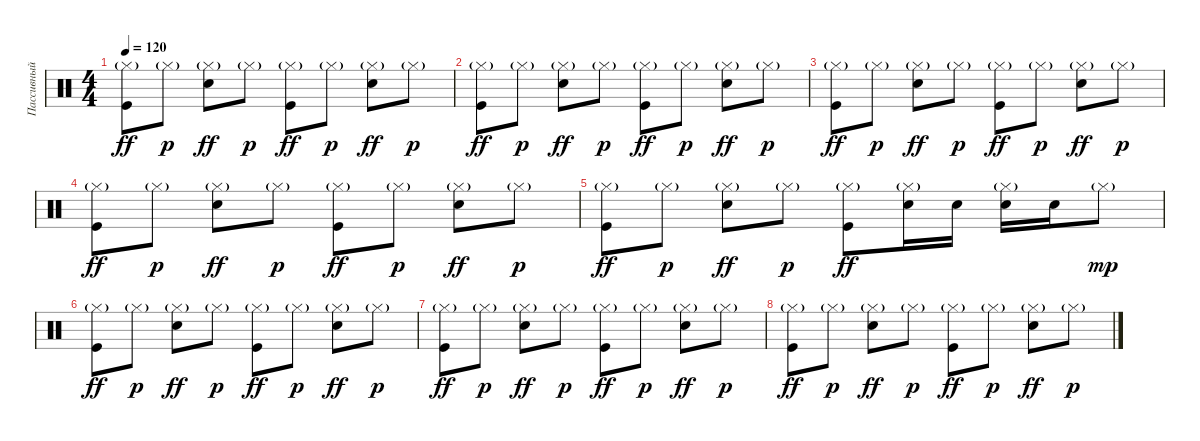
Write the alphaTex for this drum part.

\track ("Пассивный ударник" "Пассивный ") {instrument percussion}
\staff {score}
\articulation defaults
\ts (4 4)
\tempo 120
\clef neutral
\ks c
("Hi-Hat (closed)"{g} "Kick (hit)").8{dy ff} "Hi-Hat (closed)"{g}.8{dy p} ("Hi-Hat (closed)"{g} "Electric Snare (hit)").8{dy ff} "Hi-Hat (closed)"{g}.8{dy p} ("Hi-Hat (closed)"{g} "Kick (hit)").8{dy ff} "Hi-Hat (closed)"{g}.8{dy p} ("Hi-Hat (closed)"{g} "Electric Snare (hit)").8{dy ff} "Hi-Hat (closed)"{g}.8{dy p} |
("Hi-Hat (closed)"{g} "Kick (hit)").8{dy ff} "Hi-Hat (closed)"{g}.8{dy p} ("Hi-Hat (closed)"{g} "Electric Snare (hit)").8{dy ff} "Hi-Hat (closed)"{g}.8{dy p} ("Hi-Hat (closed)"{g} "Kick (hit)").8{dy ff} "Hi-Hat (closed)"{g}.8{dy p} ("Hi-Hat (closed)"{g} "Electric Snare (hit)").8{dy ff} "Hi-Hat (closed)"{g}.8{dy p} |
("Hi-Hat (closed)"{g} "Kick (hit)").8{dy ff} "Hi-Hat (closed)"{g}.8{dy p} ("Hi-Hat (closed)"{g} "Electric Snare (hit)").8{dy ff} "Hi-Hat (closed)"{g}.8{dy p} ("Hi-Hat (closed)"{g} "Kick (hit)").8{dy ff} "Hi-Hat (closed)"{g}.8{dy p} ("Hi-Hat (closed)"{g} "Electric Snare (hit)").8{dy ff} "Hi-Hat (closed)"{g}.8{dy p} |
("Hi-Hat (closed)"{g} "Kick (hit)").8{dy ff} "Hi-Hat (closed)"{g}.8{dy p} ("Hi-Hat (closed)"{g} "Electric Snare (hit)").8{dy ff} "Hi-Hat (closed)"{g}.8{dy p} ("Hi-Hat (closed)"{g} "Kick (hit)").8{dy ff} "Hi-Hat (closed)"{g}.8{dy p} ("Hi-Hat (closed)"{g} "Electric Snare (hit)").8{dy ff} "Hi-Hat (closed)"{g}.8{dy p} |
("Hi-Hat (closed)"{g} "Kick (hit)").8{dy ff} "Hi-Hat (closed)"{g}.8{dy p} ("Hi-Hat (closed)"{g} "Electric Snare (hit)").8{dy ff} "Hi-Hat (closed)"{g}.8{dy p} ("Hi-Hat (closed)"{g} "Kick (hit)").8{dy ff} ("Hi-Hat (closed)"{g} "Electric Snare (hit)").16 "Electric Snare (hit)".16 ("Hi-Hat (closed)"{g} "Electric Snare (hit)").16 "Electric Snare (hit)".16 "Hi-Hat (closed)"{g}.8{dy mp} |
("Hi-Hat (closed)"{g} "Kick (hit)").8{dy ff} "Hi-Hat (closed)"{g}.8{dy p} ("Hi-Hat (closed)"{g} "Electric Snare (hit)").8{dy ff} "Hi-Hat (closed)"{g}.8{dy p} ("Hi-Hat (closed)"{g} "Kick (hit)").8{dy ff} "Hi-Hat (closed)"{g}.8{dy p} ("Hi-Hat (closed)"{g} "Electric Snare (hit)").8{dy ff} "Hi-Hat (closed)"{g}.8{dy p} |
("Hi-Hat (closed)"{g} "Kick (hit)").8{dy ff} "Hi-Hat (closed)"{g}.8{dy p} ("Hi-Hat (closed)"{g} "Electric Snare (hit)").8{dy ff} "Hi-Hat (closed)"{g}.8{dy p} ("Hi-Hat (closed)"{g} "Kick (hit)").8{dy ff} "Hi-Hat (closed)"{g}.8{dy p} ("Hi-Hat (closed)"{g} "Electric Snare (hit)").8{dy ff} "Hi-Hat (closed)"{g}.8{dy p} |
("Hi-Hat (closed)"{g} "Kick (hit)").8{dy ff} "Hi-Hat (closed)"{g}.8{dy p} ("Hi-Hat (closed)"{g} "Electric Snare (hit)").8{dy ff} "Hi-Hat (closed)"{g}.8{dy p} ("Hi-Hat (closed)"{g} "Kick (hit)").8{dy ff} "Hi-Hat (closed)"{g}.8{dy p} ("Hi-Hat (closed)"{g} "Electric Snare (hit)").8{dy ff} "Hi-Hat (closed)"{g}.8{dy p}
